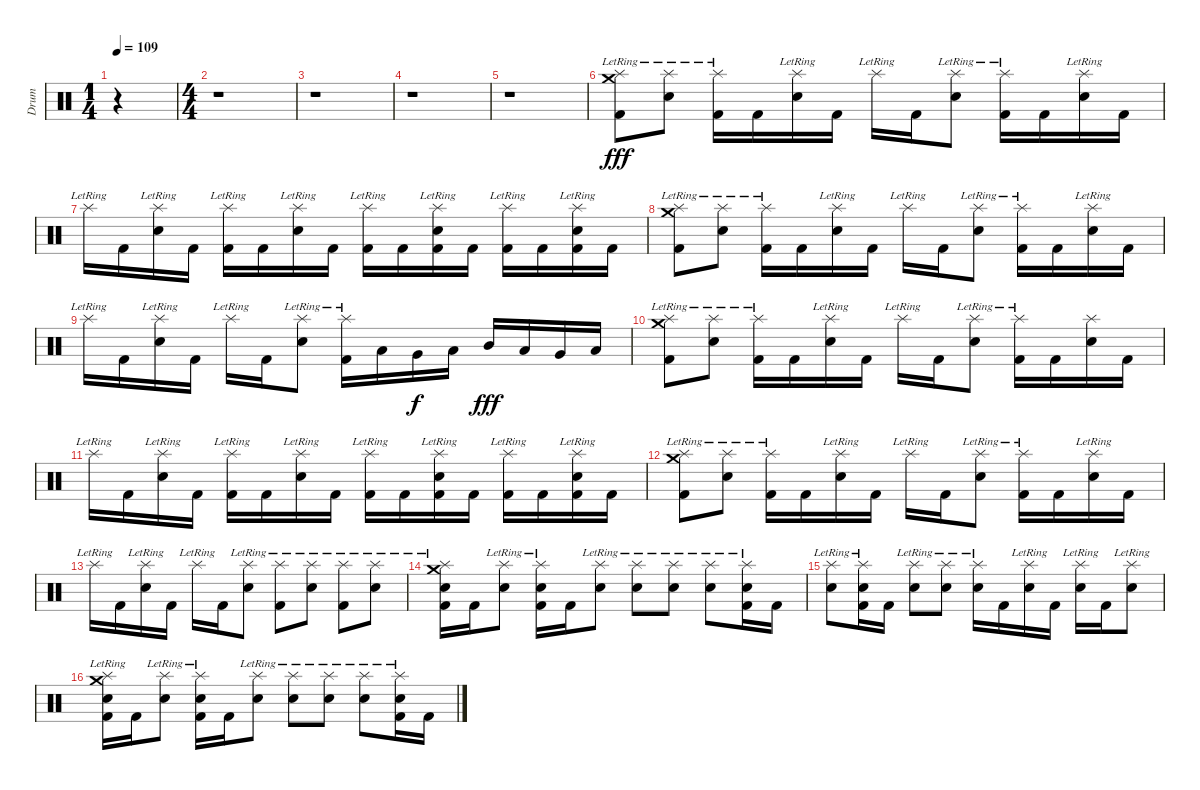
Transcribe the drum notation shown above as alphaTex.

\track ("Drum" "Drum") {instrument percussion}
\staff {score}
\articulation defaults
\ts (1 4)
\tempo 109
\clef neutral
\ks c
r.4{dy fff} |
\ts (4 4)
r.1 |
r.1 |
r.1 |
r.1 |
("Crash medium (hit)"{lr} "Splash (hit)"{lr} "Kick (hit) 2").8 ("Splash (hit)"{lr} "Electric Snare (hit)").8 ("Splash (hit)"{lr} "Kick (hit) 2").16 "Kick (hit) 2".16 ("Splash (hit)"{lr} "Electric Snare (hit)").16 "Kick (hit) 2".16 "Splash (hit)"{lr}.16 "Kick (hit) 2".16 ("Splash (hit)"{lr} "Electric Snare (hit)").8 ("Splash (hit)"{lr} "Kick (hit) 2").16 "Kick (hit) 2".16 ("Splash (hit)"{lr} "Electric Snare (hit)").16 "Kick (hit) 2".16 |
"Splash (hit)"{lr}.16 "Kick (hit) 2".16 ("Splash (hit)"{lr} "Electric Snare (hit)").16 "Kick (hit) 2".16 ("Splash (hit)"{lr} "Kick (hit) 2").16 "Kick (hit) 2".16 ("Splash (hit)"{lr} "Electric Snare (hit)").16 "Kick (hit) 2".16 ("Splash (hit)"{lr} "Kick (hit) 2").16 "Kick (hit) 2".16 ("Splash (hit)"{lr} "Electric Snare (hit)" "Kick (hit) 2").16 "Kick (hit) 2".16 ("Splash (hit)"{lr} "Kick (hit) 2").16 "Kick (hit) 2".16 ("Splash (hit)"{lr} "Electric Snare (hit)" "Kick (hit) 2").16 "Kick (hit) 2".16 |
("Crash medium (hit)"{lr} "Splash (hit)"{lr} "Kick (hit) 2").8 ("Splash (hit)"{lr} "Electric Snare (hit)").8 ("Splash (hit)"{lr} "Kick (hit) 2").16 "Kick (hit) 2".16 ("Splash (hit)"{lr} "Electric Snare (hit)").16 "Kick (hit) 2".16 "Splash (hit)"{lr}.16 "Kick (hit) 2".16 ("Splash (hit)"{lr} "Electric Snare (hit)").8 ("Splash (hit)"{lr} "Kick (hit) 2").16 "Kick (hit) 2".16 ("Splash (hit)"{lr} "Electric Snare (hit)").16 "Kick (hit) 2".16 |
"Splash (hit)"{lr}.16 "Kick (hit) 2".16 ("Splash (hit)"{lr} "Electric Snare (hit)").16 "Kick (hit) 2".16 "Splash (hit)"{lr}.16 "Kick (hit) 2".16 ("Splash (hit)"{lr} "Electric Snare (hit)").8 ("Splash (hit)"{lr} "Kick (hit) 2").16 "Low Tom (hit)".16 "Very Low Tom (hit)".16{dy f} "Low Floor Tom (hit)".16 "Mid Tom (hit)".16{dy fff} "Low Tom (hit)".16 "Very Low Tom (hit)".16 "Low Floor Tom (hit)".16 |
("Crash medium (hit)"{lr} "Splash (hit)"{lr} "Kick (hit) 2").8 ("Splash (hit)"{lr} "Electric Snare (hit)").8 ("Splash (hit)"{lr} "Kick (hit) 2").16 "Kick (hit) 2".16 ("Splash (hit)"{lr} "Electric Snare (hit)").16 "Kick (hit) 2".16 "Splash (hit)"{lr}.16 "Kick (hit) 2".16 ("Splash (hit)"{lr} "Electric Snare (hit)").8 ("Splash (hit)"{lr} "Kick (hit) 2").16 "Kick (hit) 2".16 ("Splash (hit)" "Electric Snare (hit)").16 "Kick (hit) 2".16 |
"Splash (hit)"{lr}.16 "Kick (hit) 2".16 ("Splash (hit)"{lr} "Electric Snare (hit)").16 "Kick (hit) 2".16 ("Splash (hit)"{lr} "Kick (hit) 2").16 "Kick (hit) 2".16 ("Splash (hit)"{lr} "Electric Snare (hit)").16 "Kick (hit) 2".16 ("Splash (hit)"{lr} "Kick (hit) 2").16 "Kick (hit) 2".16 ("Splash (hit)"{lr} "Electric Snare (hit)" "Kick (hit) 2").16 "Kick (hit) 2".16 ("Splash (hit)"{lr} "Kick (hit) 2").16 "Kick (hit) 2".16 ("Splash (hit)"{lr} "Electric Snare (hit)" "Kick (hit) 2").16 "Kick (hit) 2".16 |
("Crash medium (hit)"{lr} "Splash (hit)"{lr} "Kick (hit) 2").8 ("Splash (hit)"{lr} "Electric Snare (hit)").8 ("Splash (hit)"{lr} "Kick (hit) 2").16 "Kick (hit) 2".16 ("Splash (hit)"{lr} "Electric Snare (hit)").16 "Kick (hit) 2".16 "Splash (hit)"{lr}.16 "Kick (hit) 2".16 ("Splash (hit)"{lr} "Electric Snare (hit)").8 ("Splash (hit)"{lr} "Kick (hit) 2").16 "Kick (hit) 2".16 ("Splash (hit)"{lr} "Electric Snare (hit)").16 "Kick (hit) 2".16 |
"Splash (hit)"{lr}.16 "Kick (hit) 2".16 ("Splash (hit)"{lr} "Electric Snare (hit)").16 "Kick (hit) 2".16 "Splash (hit)"{lr}.16 "Kick (hit) 2".16 ("Splash (hit)"{lr} "Electric Snare (hit)").8 ("Splash (hit)"{lr} "Kick (hit) 2").8 ("Splash (hit)"{lr} "Electric Snare (hit)").8 ("Splash (hit)"{lr} "Kick (hit) 2").8 ("Splash (hit)"{lr} "Electric Snare (hit)").8 |
("Crash medium (hit)"{lr} "Splash (hit)"{lr} "Electric Snare (hit)" "Kick (hit) 2").16 "Kick (hit) 2".16 ("Splash (hit)"{lr} "Electric Snare (hit)").8 ("Splash (hit)"{lr} "Electric Snare (hit)" "Kick (hit) 2").16 "Kick (hit) 2".16 ("Splash (hit)"{lr} "Electric Snare (hit)").8 ("Splash (hit)"{lr} "Electric Snare (hit)").8 ("Splash (hit)"{lr} "Electric Snare (hit)").8 ("Splash (hit)"{lr} "Electric Snare (hit)").8 ("Splash (hit)"{lr} "Electric Snare (hit)" "Kick (hit) 2").16 "Kick (hit) 2".16 |
("Splash (hit)"{lr} "Electric Snare (hit)").8 ("Splash (hit)"{lr} "Electric Snare (hit)" "Kick (hit) 2").16 "Kick (hit) 2".16 ("Splash (hit)"{lr} "Electric Snare (hit)").8 ("Splash (hit)"{lr} "Electric Snare (hit)").8 ("Splash (hit)"{lr} "Electric Snare (hit)").16 "Kick (hit) 2".16 ("Splash (hit)"{lr} "Electric Snare (hit)").16 "Kick (hit) 2".16 ("Splash (hit)"{lr} "Electric Snare (hit)").16 "Kick (hit) 2".16 ("Splash (hit)"{lr} "Electric Snare (hit)").8 |
("Crash medium (hit)"{lr} "Splash (hit)"{lr} "Electric Snare (hit)" "Kick (hit) 2").16 "Kick (hit) 2".16 ("Splash (hit)"{lr} "Electric Snare (hit)").8 ("Splash (hit)"{lr} "Electric Snare (hit)" "Kick (hit) 2").16 "Kick (hit) 2".16 ("Splash (hit)"{lr} "Electric Snare (hit)").8 ("Splash (hit)"{lr} "Electric Snare (hit)").8 ("Splash (hit)"{lr} "Electric Snare (hit)").8 ("Splash (hit)"{lr} "Electric Snare (hit)").8 ("Splash (hit)"{lr} "Electric Snare (hit)" "Kick (hit) 2").16 "Kick (hit) 2".16
